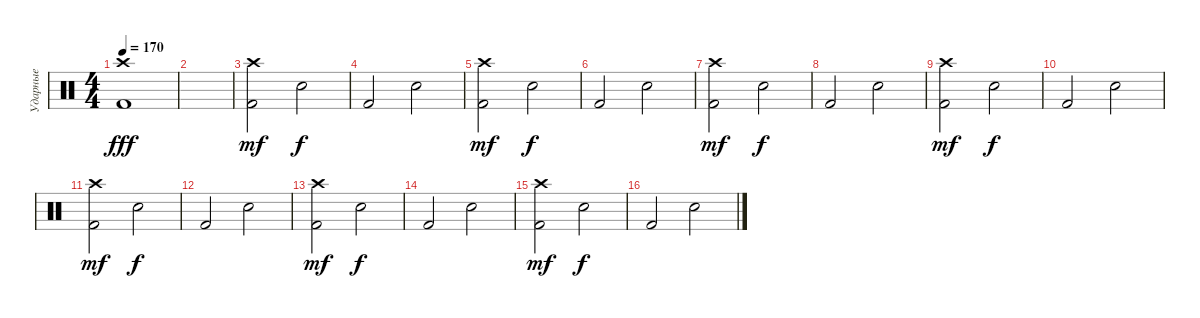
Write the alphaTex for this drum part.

\track ("Ударные" "Ударные") {instrument percussion}
\staff {score}
\articulation defaults
\ts (4 4)
\tempo 170
\clef neutral
\ks c
("Kick (hit) 2" "Crash high (hit)").1{dy fff} |
|
("Kick (hit) 2" "Crash high (hit)").2{dy mf} "Electric Snare (hit)".2{dy f} |
"Kick (hit) 2".2 "Electric Snare (hit)".2 |
("Kick (hit) 2" "Crash high (hit)").2{dy mf} "Electric Snare (hit)".2{dy f} |
"Kick (hit) 2".2 "Electric Snare (hit)".2 |
("Kick (hit) 2" "Crash high (hit)").2{dy mf} "Electric Snare (hit)".2{dy f} |
"Kick (hit) 2".2 "Electric Snare (hit)".2 |
("Kick (hit) 2" "Crash high (hit)").2{dy mf} "Electric Snare (hit)".2{dy f} |
"Kick (hit) 2".2 "Electric Snare (hit)".2 |
("Kick (hit) 2" "Crash high (hit)").2{dy mf} "Electric Snare (hit)".2{dy f} |
"Kick (hit) 2".2 "Electric Snare (hit)".2 |
("Kick (hit) 2" "Crash high (hit)").2{dy mf} "Electric Snare (hit)".2{dy f} |
"Kick (hit) 2".2 "Electric Snare (hit)".2 |
("Kick (hit) 2" "Crash high (hit)").2{dy mf} "Electric Snare (hit)".2{dy f} |
"Kick (hit) 2".2 "Electric Snare (hit)".2
